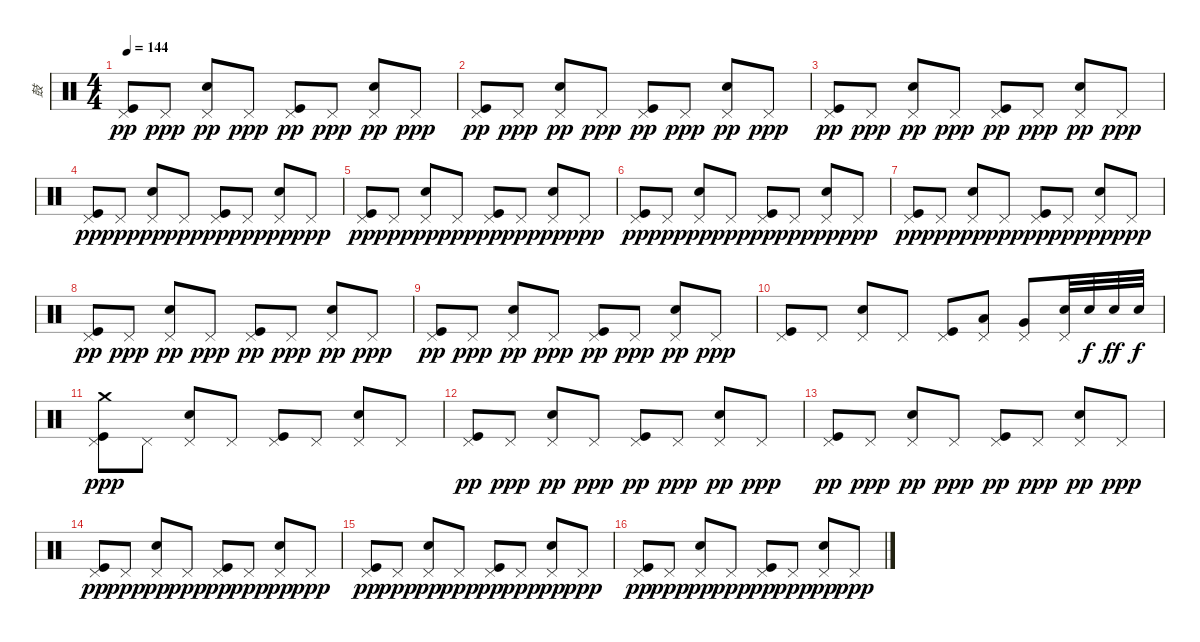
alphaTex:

\track ("鼓" "鼓") {instrument percussion}
\staff {score}
\articulation defaults
\ts (4 4)
\tempo 144
\clef neutral
\ks c
("Kick (hit)" "Pedal Hi-Hat (hit)").8{dy pp} "Pedal Hi-Hat (hit)".8{dy ppp} ("Snare (hit) 2" "Pedal Hi-Hat (hit)").8{dy pp} "Pedal Hi-Hat (hit)".8{dy ppp} ("Kick (hit)" "Pedal Hi-Hat (hit)").8{dy pp} "Pedal Hi-Hat (hit)".8{dy ppp} ("Snare (hit) 2" "Pedal Hi-Hat (hit)").8{dy pp} "Pedal Hi-Hat (hit)".8{dy ppp} |
("Kick (hit)" "Pedal Hi-Hat (hit)").8{dy pp} "Pedal Hi-Hat (hit)".8{dy ppp} ("Snare (hit) 2" "Pedal Hi-Hat (hit)").8{dy pp} "Pedal Hi-Hat (hit)".8{dy ppp} ("Kick (hit)" "Pedal Hi-Hat (hit)").8{dy pp} "Pedal Hi-Hat (hit)".8{dy ppp} ("Snare (hit) 2" "Pedal Hi-Hat (hit)").8{dy pp} "Pedal Hi-Hat (hit)".8{dy ppp} |
("Kick (hit)" "Pedal Hi-Hat (hit)").8{dy pp} "Pedal Hi-Hat (hit)".8{dy ppp} ("Snare (hit) 2" "Pedal Hi-Hat (hit)").8{dy pp} "Pedal Hi-Hat (hit)".8{dy ppp} ("Kick (hit)" "Pedal Hi-Hat (hit)").8{dy pp} "Pedal Hi-Hat (hit)".8{dy ppp} ("Snare (hit) 2" "Pedal Hi-Hat (hit)").8{dy pp} "Pedal Hi-Hat (hit)".8{dy ppp} |
("Kick (hit)" "Pedal Hi-Hat (hit)").8{dy pp} "Pedal Hi-Hat (hit)".8{dy ppp} ("Snare (hit) 2" "Pedal Hi-Hat (hit)").8{dy pp} "Pedal Hi-Hat (hit)".8{dy ppp} ("Kick (hit)" "Pedal Hi-Hat (hit)").8{dy pp} "Pedal Hi-Hat (hit)".8{dy ppp} ("Snare (hit) 2" "Pedal Hi-Hat (hit)").8{dy pp} "Pedal Hi-Hat (hit)".8{dy ppp} |
("Kick (hit)" "Pedal Hi-Hat (hit)").8{dy pp} "Pedal Hi-Hat (hit)".8{dy ppp} ("Snare (hit) 2" "Pedal Hi-Hat (hit)").8{dy pp} "Pedal Hi-Hat (hit)".8{dy ppp} ("Kick (hit)" "Pedal Hi-Hat (hit)").8{dy pp} "Pedal Hi-Hat (hit)".8{dy ppp} ("Snare (hit) 2" "Pedal Hi-Hat (hit)").8{dy pp} "Pedal Hi-Hat (hit)".8{dy ppp} |
("Kick (hit)" "Pedal Hi-Hat (hit)").8{dy pp} "Pedal Hi-Hat (hit)".8{dy ppp} ("Snare (hit) 2" "Pedal Hi-Hat (hit)").8{dy pp} "Pedal Hi-Hat (hit)".8{dy ppp} ("Kick (hit)" "Pedal Hi-Hat (hit)").8{dy pp} "Pedal Hi-Hat (hit)".8{dy ppp} ("Snare (hit) 2" "Pedal Hi-Hat (hit)").8{dy pp} "Pedal Hi-Hat (hit)".8{dy ppp} |
("Kick (hit)" "Pedal Hi-Hat (hit)").8{dy pp} "Pedal Hi-Hat (hit)".8{dy ppp} ("Snare (hit) 2" "Pedal Hi-Hat (hit)").8{dy pp} "Pedal Hi-Hat (hit)".8{dy ppp} ("Kick (hit)" "Pedal Hi-Hat (hit)").8{dy pp} "Pedal Hi-Hat (hit)".8{dy ppp} ("Snare (hit) 2" "Pedal Hi-Hat (hit)").8{dy pp} "Pedal Hi-Hat (hit)".8{dy ppp} |
("Kick (hit)" "Pedal Hi-Hat (hit)").8{dy pp} "Pedal Hi-Hat (hit)".8{dy ppp} ("Snare (hit) 2" "Pedal Hi-Hat (hit)").8{dy pp} "Pedal Hi-Hat (hit)".8{dy ppp} ("Kick (hit)" "Pedal Hi-Hat (hit)").8{dy pp} "Pedal Hi-Hat (hit)".8{dy ppp} ("Snare (hit) 2" "Pedal Hi-Hat (hit)").8{dy pp} "Pedal Hi-Hat (hit)".8{dy ppp} |
("Kick (hit)" "Pedal Hi-Hat (hit)").8{dy pp} "Pedal Hi-Hat (hit)".8{dy ppp} ("Snare (hit) 2" "Pedal Hi-Hat (hit)").8{dy pp} "Pedal Hi-Hat (hit)".8{dy ppp} ("Kick (hit)" "Pedal Hi-Hat (hit)").8{dy pp} "Pedal Hi-Hat (hit)".8{dy ppp} ("Snare (hit) 2" "Pedal Hi-Hat (hit)").8{dy pp} "Pedal Hi-Hat (hit)".8{dy ppp} |
("Kick (hit)" "Pedal Hi-Hat (hit)").8 "Pedal Hi-Hat (hit)".8 ("Snare (hit) 2" "Pedal Hi-Hat (hit)").8 "Pedal Hi-Hat (hit)".8 ("Kick (hit)" "Pedal Hi-Hat (hit)").8 ("Low Tom (hit)" "Pedal Hi-Hat (hit)").8 ("Very Low Tom (hit)" "Pedal Hi-Hat (hit)").8 ("Snare (hit) 2" "Pedal Hi-Hat (hit)").32 "Snare (hit) 2".32{dy f} "Snare (hit) 2".32{dy ff} "Snare (hit) 2".32{dy f} |
("Crash medium (hit)" "Kick (hit)" "Pedal Hi-Hat (hit)").8{dy ppp} "Pedal Hi-Hat (hit)".8 ("Snare (hit) 2" "Pedal Hi-Hat (hit)").8 "Pedal Hi-Hat (hit)".8 ("Kick (hit)" "Pedal Hi-Hat (hit)").8 "Pedal Hi-Hat (hit)".8 ("Snare (hit) 2" "Pedal Hi-Hat (hit)").8 "Pedal Hi-Hat (hit)".8 |
("Kick (hit)" "Pedal Hi-Hat (hit)").8{dy pp} "Pedal Hi-Hat (hit)".8{dy ppp} ("Snare (hit) 2" "Pedal Hi-Hat (hit)").8{dy pp} "Pedal Hi-Hat (hit)".8{dy ppp} ("Kick (hit)" "Pedal Hi-Hat (hit)").8{dy pp} "Pedal Hi-Hat (hit)".8{dy ppp} ("Snare (hit) 2" "Pedal Hi-Hat (hit)").8{dy pp} "Pedal Hi-Hat (hit)".8{dy ppp} |
("Kick (hit)" "Pedal Hi-Hat (hit)").8{dy pp} "Pedal Hi-Hat (hit)".8{dy ppp} ("Snare (hit) 2" "Pedal Hi-Hat (hit)").8{dy pp} "Pedal Hi-Hat (hit)".8{dy ppp} ("Kick (hit)" "Pedal Hi-Hat (hit)").8{dy pp} "Pedal Hi-Hat (hit)".8{dy ppp} ("Snare (hit) 2" "Pedal Hi-Hat (hit)").8{dy pp} "Pedal Hi-Hat (hit)".8{dy ppp} |
("Kick (hit)" "Pedal Hi-Hat (hit)").8{dy pp} "Pedal Hi-Hat (hit)".8{dy ppp} ("Snare (hit) 2" "Pedal Hi-Hat (hit)").8{dy pp} "Pedal Hi-Hat (hit)".8{dy ppp} ("Kick (hit)" "Pedal Hi-Hat (hit)").8{dy pp} "Pedal Hi-Hat (hit)".8{dy ppp} ("Snare (hit) 2" "Pedal Hi-Hat (hit)").8{dy pp} "Pedal Hi-Hat (hit)".8{dy ppp} |
("Kick (hit)" "Pedal Hi-Hat (hit)").8{dy pp} "Pedal Hi-Hat (hit)".8{dy ppp} ("Snare (hit) 2" "Pedal Hi-Hat (hit)").8{dy pp} "Pedal Hi-Hat (hit)".8{dy ppp} ("Kick (hit)" "Pedal Hi-Hat (hit)").8{dy pp} "Pedal Hi-Hat (hit)".8{dy ppp} ("Snare (hit) 2" "Pedal Hi-Hat (hit)").8{dy pp} "Pedal Hi-Hat (hit)".8{dy ppp} |
("Kick (hit)" "Pedal Hi-Hat (hit)").8{dy pp} "Pedal Hi-Hat (hit)".8{dy ppp} ("Snare (hit) 2" "Pedal Hi-Hat (hit)").8{dy pp} "Pedal Hi-Hat (hit)".8{dy ppp} ("Kick (hit)" "Pedal Hi-Hat (hit)").8{dy pp} "Pedal Hi-Hat (hit)".8{dy ppp} ("Snare (hit) 2" "Pedal Hi-Hat (hit)").8{dy pp} "Pedal Hi-Hat (hit)".8{dy ppp}
